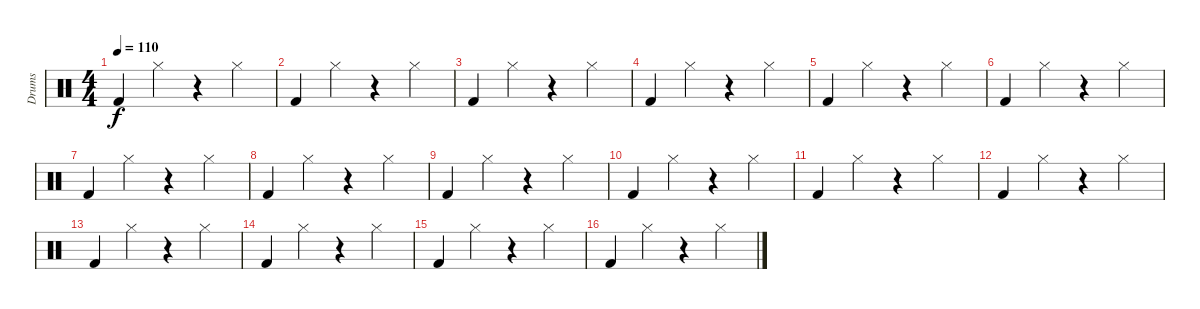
\track ("Drums" "Drums") {instrument percussion}
\staff {score}
\articulation defaults
\ts (4 4)
\tempo 110
\clef neutral
\ks c "Kick (hit) 2".4{dy f} "Hi-Hat (closed)".4
r.4 "Hi-Hat (closed)".4 |
"Kick (hit) 2".4 "Hi-Hat (closed)".4 r.4 "Hi-Hat (closed)".4 |
"Kick (hit) 2".4 "Hi-Hat (closed)".4 r.4 "Hi-Hat (closed)".4 |
"Kick (hit) 2".4 "Hi-Hat (closed)".4 r.4 "Hi-Hat (closed)".4 |
"Kick (hit) 2".4 "Hi-Hat (closed)".4 r.4 "Hi-Hat (closed)".4 |
"Kick (hit) 2".4 "Hi-Hat (closed)".4 r.4 "Hi-Hat (closed)".4 |
"Kick (hit) 2".4 "Hi-Hat (closed)".4 r.4 "Hi-Hat (closed)".4 |
"Kick (hit) 2".4 "Hi-Hat (closed)".4 r.4 "Hi-Hat (closed)".4 |
"Kick (hit) 2".4 "Hi-Hat (closed)".4 r.4 "Hi-Hat (closed)".4 |
"Kick (hit) 2".4 "Hi-Hat (closed)".4 r.4 "Hi-Hat (closed)".4 |
"Kick (hit) 2".4 "Hi-Hat (closed)".4 r.4 "Hi-Hat (closed)".4 |
"Kick (hit) 2".4 "Hi-Hat (closed)".4 r.4 "Hi-Hat (closed)".4 |
"Kick (hit) 2".4 "Hi-Hat (closed)".4 r.4 "Hi-Hat (closed)".4 |
"Kick (hit) 2".4 "Hi-Hat (closed)".4 r.4 "Hi-Hat (closed)".4 |
"Kick (hit) 2".4 "Hi-Hat (closed)".4 r.4 "Hi-Hat (closed)".4 |
"Kick (hit) 2".4 "Hi-Hat (closed)".4 r.4 "Hi-Hat (closed)".4
